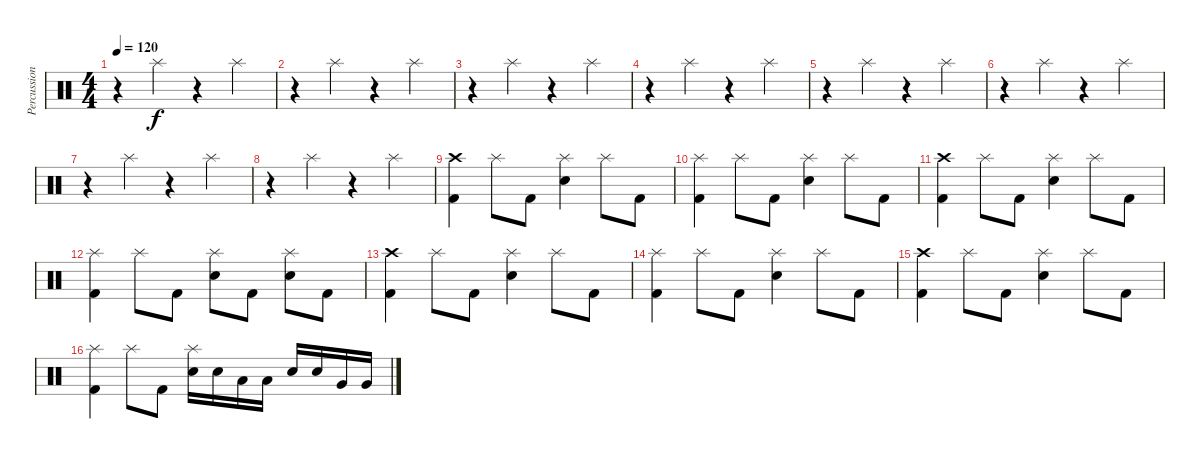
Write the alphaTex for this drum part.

\track ("Percussion" "Percussion") {instrument percussion}
\staff {score}
\articulation defaults
\ts (4 4)
\tempo 120
\clef neutral
\ks c
r.4{dy f} "Splash (hit)".4 r.4 "Splash (hit)".4 |
r.4 "Splash (hit)".4 r.4 "Splash (hit)".4 |
r.4 "Splash (hit)".4 r.4 "Splash (hit)".4 |
r.4 "Splash (hit)".4 r.4 "Splash (hit)".4 |
r.4 "Splash (hit)".4 r.4 "Splash (hit)".4 |
r.4 "Splash (hit)".4 r.4 "Splash (hit)".4 |
r.4 "Splash (hit)".4 r.4 "Splash (hit)".4 |
r.4 "Splash (hit)".4 r.4 "Splash (hit)".4 |
("Crash high (hit)" "Kick (hit) 2").4 "Splash (hit)".8 "Kick (hit) 2".8 ("Splash (hit)" "Electric Snare (hit)").4 "Splash (hit)".8 "Kick (hit) 2".8 |
("Splash (hit)" "Kick (hit) 2").4 "Splash (hit)".8 "Kick (hit) 2".8 ("Splash (hit)" "Electric Snare (hit)").4 "Splash (hit)".8 "Kick (hit) 2".8 |
("Crash high (hit)" "Kick (hit) 2").4 "Splash (hit)".8 "Kick (hit) 2".8 ("Splash (hit)" "Electric Snare (hit)").4 "Splash (hit)".8 "Kick (hit) 2".8 |
("Splash (hit)" "Kick (hit) 2").4 "Splash (hit)".8 "Kick (hit) 2".8 ("Splash (hit)" "Electric Snare (hit)").8 "Kick (hit) 2".8 ("Splash (hit)" "Electric Snare (hit)").8 "Kick (hit) 2".8 |
("Crash high (hit)" "Kick (hit) 2").4 "Splash (hit)".8 "Kick (hit) 2".8 ("Splash (hit)" "Electric Snare (hit)").4 "Splash (hit)".8 "Kick (hit) 2".8 |
("Splash (hit)" "Kick (hit) 2").4 "Splash (hit)".8 "Kick (hit) 2".8 ("Splash (hit)" "Electric Snare (hit)").4 "Splash (hit)".8 "Kick (hit) 2".8 |
("Crash high (hit)" "Kick (hit) 2").4 "Splash (hit)".8 "Kick (hit) 2".8 ("Splash (hit)" "Electric Snare (hit)").4 "Splash (hit)".8 "Kick (hit) 2".8 |
("Splash (hit)" "Kick (hit) 2").4 "Splash (hit)".8 "Kick (hit) 2".8 ("Splash (hit)" "Electric Snare (hit)").16 "Electric Snare (hit)".16 "Low Tom (hit)".16 "Low Tom (hit)".16 "Electric Snare (hit)".16 "Electric Snare (hit)".16 "Very Low Tom (hit)".16 "Very Low Tom (hit)".16
